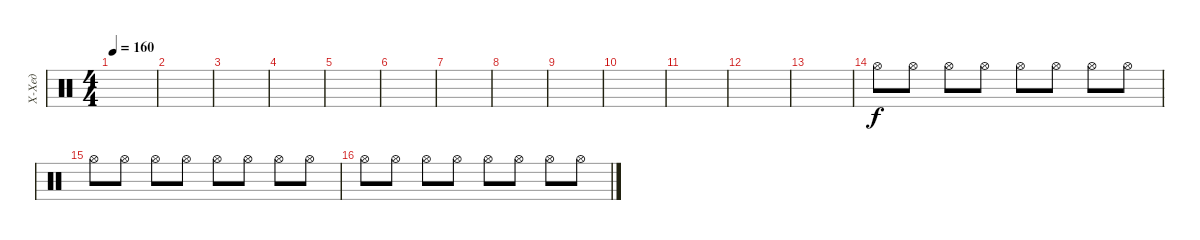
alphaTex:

\track ("Х-Хед" "Х-Хед") {instrument percussion}
\staff {score}
\articulation defaults
\ts (4 4)
\tempo 160
\clef neutral
\ks c
|
|
|
|
|
|
|
|
|
|
|
|
|
"Hi-Hat (open)".8 "Hi-Hat (open)".8 "Hi-Hat (open)".8 "Hi-Hat (open)".8 "Hi-Hat (open)".8 "Hi-Hat (open)".8 "Hi-Hat (open)".8 "Hi-Hat (open)".8 |
"Hi-Hat (open)".8 "Hi-Hat (open)".8 "Hi-Hat (open)".8 "Hi-Hat (open)".8 "Hi-Hat (open)".8 "Hi-Hat (open)".8 "Hi-Hat (open)".8 "Hi-Hat (open)".8 |
"Hi-Hat (open)".8 "Hi-Hat (open)".8 "Hi-Hat (open)".8 "Hi-Hat (open)".8 "Hi-Hat (open)".8 "Hi-Hat (open)".8 "Hi-Hat (open)".8 "Hi-Hat (open)".8
